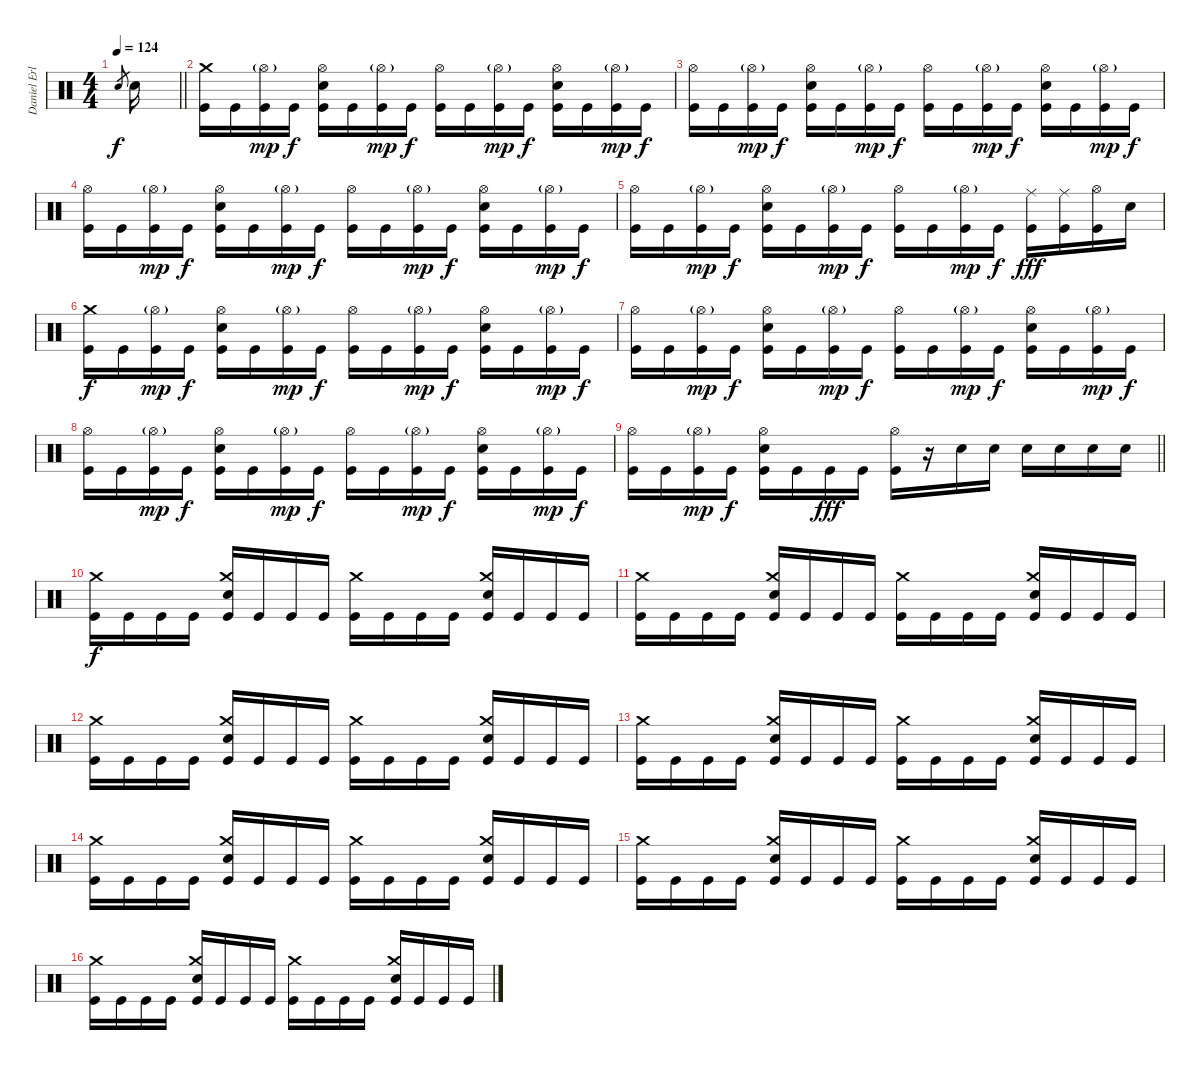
\track ("Daniel Erlandsson" "Daniel Erl") {instrument percussion}
\staff {score}
\articulation defaults
\ts (4 4)
\tempo 124
\clef neutral
\barLineRight lightlight
\ks c "Snare (hit) 2".8{gr dy f} "Snare (hit) 2".16
|
\section ("" "")
("Crash medium (hit)" "Kick (hit)").16 "Kick (hit)".16 ("Hi-Hat (open)"{g} "Kick (hit)").16{dy mp} "Kick (hit)".16{dy f} ("Hi-Hat (open)" "Snare (hit) 2" "Kick (hit)").16 "Kick (hit)".16 ("Hi-Hat (open)"{g} "Kick (hit)").16{dy mp} "Kick (hit)".16{dy f} ("Hi-Hat (open)" "Kick (hit)").16 "Kick (hit)".16 ("Hi-Hat (open)"{g} "Kick (hit)").16{dy mp} "Kick (hit)".16{dy f} ("Hi-Hat (open)" "Snare (hit) 2" "Kick (hit)").16 "Kick (hit)".16 ("Hi-Hat (open)"{g} "Kick (hit)").16{dy mp} "Kick (hit)".16{dy f} |
("Hi-Hat (open)" "Kick (hit)").16 "Kick (hit)".16 ("Hi-Hat (open)"{g} "Kick (hit)").16{dy mp} "Kick (hit)".16{dy f} ("Hi-Hat (open)" "Snare (hit) 2" "Kick (hit)").16 "Kick (hit)".16 ("Hi-Hat (open)"{g} "Kick (hit)").16{dy mp} "Kick (hit)".16{dy f} ("Hi-Hat (open)" "Kick (hit)").16 "Kick (hit)".16 ("Hi-Hat (open)"{g} "Kick (hit)").16{dy mp} "Kick (hit)".16{dy f} ("Hi-Hat (open)" "Snare (hit) 2" "Kick (hit)").16 "Kick (hit)".16 ("Hi-Hat (open)"{g} "Kick (hit)").16{dy mp} "Kick (hit)".16{dy f} |
("Hi-Hat (open)" "Kick (hit)").16 "Kick (hit)".16 ("Hi-Hat (open)"{g} "Kick (hit)").16{dy mp} "Kick (hit)".16{dy f} ("Hi-Hat (open)" "Snare (hit) 2" "Kick (hit)").16 "Kick (hit)".16 ("Hi-Hat (open)"{g} "Kick (hit)").16{dy mp} "Kick (hit)".16{dy f} ("Hi-Hat (open)" "Kick (hit)").16 "Kick (hit)".16 ("Hi-Hat (open)"{g} "Kick (hit)").16{dy mp} "Kick (hit)".16{dy f} ("Hi-Hat (open)" "Snare (hit) 2" "Kick (hit)").16 "Kick (hit)".16 ("Hi-Hat (open)"{g} "Kick (hit)").16{dy mp} "Kick (hit)".16{dy f} |
("Hi-Hat (open)" "Kick (hit)").16 "Kick (hit)".16 ("Hi-Hat (open)"{g} "Kick (hit)").16{dy mp} "Kick (hit)".16{dy f} ("Hi-Hat (open)" "Snare (hit) 2" "Kick (hit)").16 "Kick (hit)".16 ("Hi-Hat (open)"{g} "Kick (hit)").16{dy mp} "Kick (hit)".16{dy f} ("Hi-Hat (open)" "Kick (hit)").16 "Kick (hit)".16 ("Hi-Hat (open)"{g} "Kick (hit)").16{dy mp} "Kick (hit)".16{dy f} ("Ride (middle)" "Kick (hit)").16{dy fff} ("Ride (middle)" "Kick (hit)").16 ("Hi-Hat (open)" "Kick (hit)").16 "Snare (hit) 2".16 |
("Crash medium (hit)" "Kick (hit)").16{dy f} "Kick (hit)".16 ("Hi-Hat (open)"{g} "Kick (hit)").16{dy mp} "Kick (hit)".16{dy f} ("Hi-Hat (open)" "Snare (hit) 2" "Kick (hit)").16 "Kick (hit)".16 ("Hi-Hat (open)"{g} "Kick (hit)").16{dy mp} "Kick (hit)".16{dy f} ("Hi-Hat (open)" "Kick (hit)").16 "Kick (hit)".16 ("Hi-Hat (open)"{g} "Kick (hit)").16{dy mp} "Kick (hit)".16{dy f} ("Hi-Hat (open)" "Snare (hit) 2" "Kick (hit)").16 "Kick (hit)".16 ("Hi-Hat (open)"{g} "Kick (hit)").16{dy mp} "Kick (hit)".16{dy f} |
("Hi-Hat (open)" "Kick (hit)").16 "Kick (hit)".16 ("Hi-Hat (open)"{g} "Kick (hit)").16{dy mp} "Kick (hit)".16{dy f} ("Hi-Hat (open)" "Snare (hit) 2" "Kick (hit)").16 "Kick (hit)".16 ("Hi-Hat (open)"{g} "Kick (hit)").16{dy mp} "Kick (hit)".16{dy f} ("Hi-Hat (open)" "Kick (hit)").16 "Kick (hit)".16 ("Hi-Hat (open)"{g} "Kick (hit)").16{dy mp} "Kick (hit)".16{dy f} ("Hi-Hat (open)" "Snare (hit) 2" "Kick (hit)").16 "Kick (hit)".16 ("Hi-Hat (open)"{g} "Kick (hit)").16{dy mp} "Kick (hit)".16{dy f} |
("Hi-Hat (open)" "Kick (hit)").16 "Kick (hit)".16 ("Hi-Hat (open)"{g} "Kick (hit)").16{dy mp} "Kick (hit)".16{dy f} ("Hi-Hat (open)" "Snare (hit) 2" "Kick (hit)").16 "Kick (hit)".16 ("Hi-Hat (open)"{g} "Kick (hit)").16{dy mp} "Kick (hit)".16{dy f} ("Hi-Hat (open)" "Kick (hit)").16 "Kick (hit)".16 ("Hi-Hat (open)"{g} "Kick (hit)").16{dy mp} "Kick (hit)".16{dy f} ("Hi-Hat (open)" "Snare (hit) 2" "Kick (hit)").16 "Kick (hit)".16 ("Hi-Hat (open)"{g} "Kick (hit)").16{dy mp} "Kick (hit)".16{dy f} |
\barLineRight lightlight
("Hi-Hat (open)" "Kick (hit)").16 "Kick (hit)".16 ("Hi-Hat (open)"{g} "Kick (hit)").16{dy mp} "Kick (hit)".16{dy f} ("Hi-Hat (open)" "Snare (hit) 2" "Kick (hit)").16 "Kick (hit)".16 "Kick (hit)".16{dy fff} "Kick (hit)".16 ("Hi-Hat (open)" "Kick (hit)").16 r.16 "Snare (hit) 2".16 "Snare (hit) 2".16 "Snare (hit) 2".16 "Snare (hit) 2".16 "Snare (hit) 2".16 "Snare (hit) 2".16 |
\section ("" "")
("Crash medium (hit)" "Kick (hit)").16{dy f} "Kick (hit)".16 "Kick (hit)".16 "Kick (hit)".16 ("Crash medium (hit)" "Snare (hit) 2" "Kick (hit)").16 "Kick (hit)".16 "Kick (hit)".16 "Kick (hit)".16 ("Crash medium (hit)" "Kick (hit)").16 "Kick (hit)".16 "Kick (hit)".16 "Kick (hit)".16 ("Crash medium (hit)" "Snare (hit) 2" "Kick (hit)").16 "Kick (hit)".16 "Kick (hit)".16 "Kick (hit)".16 |
("Crash medium (hit)" "Kick (hit)").16 "Kick (hit)".16 "Kick (hit)".16 "Kick (hit)".16 ("Crash medium (hit)" "Snare (hit) 2" "Kick (hit)").16 "Kick (hit)".16 "Kick (hit)".16 "Kick (hit)".16 ("Crash medium (hit)" "Kick (hit)").16 "Kick (hit)".16 "Kick (hit)".16 "Kick (hit)".16 ("Crash medium (hit)" "Snare (hit) 2" "Kick (hit)").16 "Kick (hit)".16 "Kick (hit)".16 "Kick (hit)".16 |
("Crash medium (hit)" "Kick (hit)").16 "Kick (hit)".16 "Kick (hit)".16 "Kick (hit)".16 ("Crash medium (hit)" "Snare (hit) 2" "Kick (hit)").16 "Kick (hit)".16 "Kick (hit)".16 "Kick (hit)".16 ("Crash medium (hit)" "Kick (hit)").16 "Kick (hit)".16 "Kick (hit)".16 "Kick (hit)".16 ("Crash medium (hit)" "Snare (hit) 2" "Kick (hit)").16 "Kick (hit)".16 "Kick (hit)".16 "Kick (hit)".16 |
("Crash medium (hit)" "Kick (hit)").16 "Kick (hit)".16 "Kick (hit)".16 "Kick (hit)".16 ("Crash medium (hit)" "Snare (hit) 2" "Kick (hit)").16 "Kick (hit)".16 "Kick (hit)".16 "Kick (hit)".16 ("Crash medium (hit)" "Kick (hit)").16 "Kick (hit)".16 "Kick (hit)".16 "Kick (hit)".16 ("Crash medium (hit)" "Snare (hit) 2" "Kick (hit)").16 "Kick (hit)".16 "Kick (hit)".16 "Kick (hit)".16 |
("Crash medium (hit)" "Kick (hit)").16 "Kick (hit)".16 "Kick (hit)".16 "Kick (hit)".16 ("Crash medium (hit)" "Snare (hit) 2" "Kick (hit)").16 "Kick (hit)".16 "Kick (hit)".16 "Kick (hit)".16 ("Crash medium (hit)" "Kick (hit)").16 "Kick (hit)".16 "Kick (hit)".16 "Kick (hit)".16 ("Crash medium (hit)" "Snare (hit) 2" "Kick (hit)").16 "Kick (hit)".16 "Kick (hit)".16 "Kick (hit)".16 |
("Crash medium (hit)" "Kick (hit)").16 "Kick (hit)".16 "Kick (hit)".16 "Kick (hit)".16 ("Crash medium (hit)" "Snare (hit) 2" "Kick (hit)").16 "Kick (hit)".16 "Kick (hit)".16 "Kick (hit)".16 ("Crash medium (hit)" "Kick (hit)").16 "Kick (hit)".16 "Kick (hit)".16 "Kick (hit)".16 ("Crash medium (hit)" "Snare (hit) 2" "Kick (hit)").16 "Kick (hit)".16 "Kick (hit)".16 "Kick (hit)".16 |
("Crash medium (hit)" "Kick (hit)").16 "Kick (hit)".16 "Kick (hit)".16 "Kick (hit)".16 ("Crash medium (hit)" "Snare (hit) 2" "Kick (hit)").16 "Kick (hit)".16 "Kick (hit)".16 "Kick (hit)".16 ("Crash medium (hit)" "Kick (hit)").16 "Kick (hit)".16 "Kick (hit)".16 "Kick (hit)".16 ("Crash medium (hit)" "Snare (hit) 2" "Kick (hit)").16 "Kick (hit)".16 "Kick (hit)".16 "Kick (hit)".16
